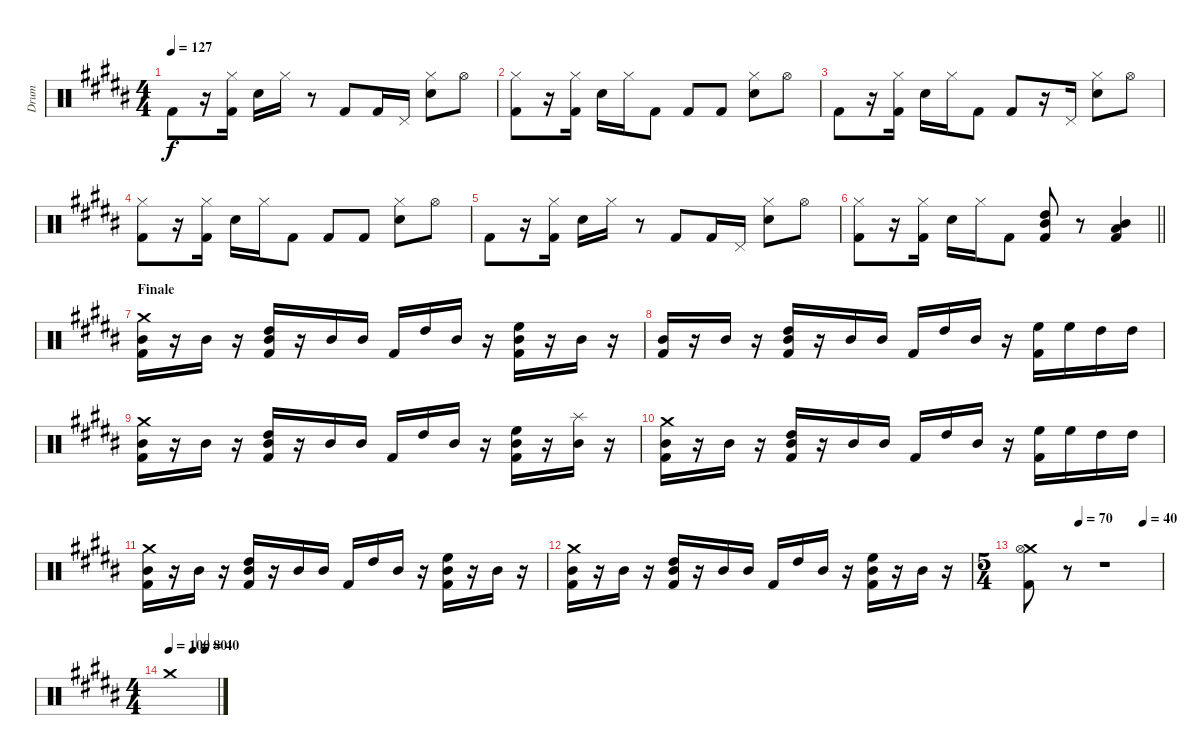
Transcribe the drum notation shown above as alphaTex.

\track ("Drum" "Drum") {instrument percussion}
\staff {score}
\articulation defaults
\ts (4 4)
\tempo 127
\clef neutral
\ks g#minor "Kick (hit) 2".8{dy f}
r.16 ("Hi-Hat (closed)" "Kick (hit) 2").16 "Snare (hit) 2".16 "Hi-Hat (closed)".16 r.8 "Kick (hit) 2".8 "Kick (hit) 2".16 "Pedal Hi-Hat (hit)".16 ("Hi-Hat (closed)" "Snare (hit) 2").8 "Hi-Hat (open)".8 |
("Hi-Hat (closed)" "Kick (hit) 2").8 r.16 ("Hi-Hat (closed)" "Kick (hit) 2").16 "Snare (hit) 2".16 "Hi-Hat (closed)".16 "Kick (hit) 2".8 "Kick (hit) 2".8 "Kick (hit) 2".8 ("Hi-Hat (closed)" "Snare (hit) 2").8 "Hi-Hat (open)".8 |
"Kick (hit) 2".8 r.16 ("Hi-Hat (closed)" "Kick (hit) 2").16 "Snare (hit) 2".16 "Hi-Hat (closed)".16 "Kick (hit) 2".8 "Kick (hit) 2".8 r.16 "Pedal Hi-Hat (hit)".16 ("Hi-Hat (closed)" "Snare (hit) 2").8 "Hi-Hat (open)".8 |
("Hi-Hat (closed)" "Kick (hit) 2").8 r.16 ("Hi-Hat (closed)" "Kick (hit) 2").16 "Snare (hit) 2".16 "Hi-Hat (closed)".16 "Kick (hit) 2".8 "Kick (hit) 2".8 "Kick (hit) 2".8 ("Hi-Hat (closed)" "Snare (hit) 2").8 "Hi-Hat (open)".8 |
"Kick (hit) 2".8 r.16 ("Hi-Hat (closed)" "Kick (hit) 2").16 "Snare (hit) 2".16 "Hi-Hat (closed)".16 r.8 "Kick (hit) 2".8 "Kick (hit) 2".16 "Pedal Hi-Hat (hit)".16 ("Hi-Hat (closed)" "Snare (hit) 2").8 "Hi-Hat (open)".8 |
\barLineRight lightlight
("Hi-Hat (closed)" "Kick (hit) 2").8 r.16 ("Hi-Hat (closed)" "Kick (hit) 2").16 "Snare (hit) 2".16 "Hi-Hat (closed)".16 "Kick (hit) 2".8 ("Mid Tom (hit)" "High Tom (hit)" "Kick (hit) 2").8 r.8 ("Mid Tom (hit)" "Low Tom (hit)" "Kick (hit) 2").4 |
\section ("" "Finale")
("Crash medium (hit)" "Mid Tom (hit)" "Kick (hit) 2").16 r.16 "Mid Tom (hit)".16 r.16 ("Mid Tom (hit)" "High Tom (hit)" "Kick (hit) 2").16 r.16 "Mid Tom (hit)".16 "Mid Tom (hit)".16 "Kick (hit) 2".16 "High Tom (hit)".16 "Mid Tom (hit)".16 r.16 ("Mid Tom (hit)" "High Floor Tom (hit)" "Kick (hit) 2").16 r.16 "Mid Tom (hit)".16 r.16 |
("Mid Tom (hit)" "Kick (hit) 2").16 r.16 "Mid Tom (hit)".16 r.16 ("Mid Tom (hit)" "High Tom (hit)" "Kick (hit) 2").16 r.16 "Mid Tom (hit)".16 "Mid Tom (hit)".16 "Kick (hit) 2".16 "High Tom (hit)".16 "Mid Tom (hit)".16 r.16 ("High Floor Tom (hit)" "Kick (hit) 2").16 "High Floor Tom (hit)".16 "High Tom (hit)".16 "High Tom (hit)".16 |
("Crash medium (hit)" "Mid Tom (hit)" "Kick (hit) 2").16 r.16 "Mid Tom (hit)".16 r.16 ("Mid Tom (hit)" "High Tom (hit)" "Kick (hit) 2").16 r.16 "Mid Tom (hit)".16 "Mid Tom (hit)".16 "Kick (hit) 2".16 "High Tom (hit)".16 "Mid Tom (hit)".16 r.16 ("Mid Tom (hit)" "High Floor Tom (hit)" "Kick (hit) 2").16 r.16 ("Splash (hit)" "Mid Tom (hit)").16 r.16 |
("Crash medium (hit)" "Mid Tom (hit)" "Kick (hit) 2").16 r.16 "Mid Tom (hit)".16 r.16 ("Mid Tom (hit)" "High Tom (hit)" "Kick (hit) 2").16 r.16 "Mid Tom (hit)".16 "Mid Tom (hit)".16 "Kick (hit) 2".16 "High Tom (hit)".16 "Mid Tom (hit)".16 r.16 ("High Floor Tom (hit)" "Kick (hit) 2").16 "High Floor Tom (hit)".16 "High Tom (hit)".16 "High Tom (hit)".16 |
("Crash medium (hit)" "Mid Tom (hit)" "Kick (hit) 2").16 r.16 "Mid Tom (hit)".16 r.16 ("Mid Tom (hit)" "High Tom (hit)" "Kick (hit) 2").16 r.16 "Mid Tom (hit)".16 "Mid Tom (hit)".16 "Kick (hit) 2".16 "High Tom (hit)".16 "Mid Tom (hit)".16 r.16 ("Mid Tom (hit)" "High Floor Tom (hit)" "Kick (hit) 2").16 r.16 "Mid Tom (hit)".16 r.16 |
("Crash medium (hit)" "Mid Tom (hit)" "Kick (hit) 2").16 r.16 "Mid Tom (hit)".16 r.16 ("Mid Tom (hit)" "High Tom (hit)" "Kick (hit) 2").16 r.16 "Mid Tom (hit)".16 "Mid Tom (hit)".16 "Kick (hit) 2".16 "High Tom (hit)".16 "Mid Tom (hit)".16 r.16 ("Mid Tom (hit)" "High Floor Tom (hit)" "Kick (hit) 2").16 r.16 "Mid Tom (hit)".16 r.16 |
\ts (5 4)
\tempo (70 0.4)
\tempo (40 0.8666666666666667)
("Crash medium (hit)" "Hi-Hat (open)" "Kick (hit) 2").8 r.8 r.1 |
\ts (4 4)
\tempo 100
\tempo (80 0.5)
\tempo (40 0.75)
"Crash medium (hit)".1
